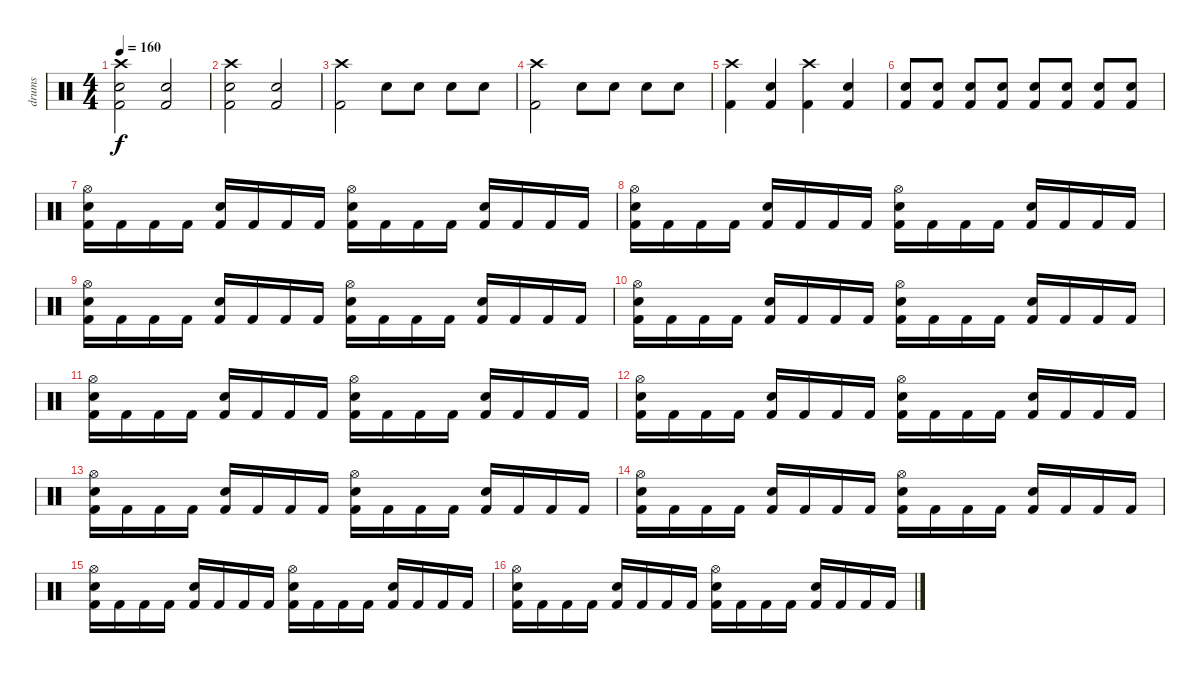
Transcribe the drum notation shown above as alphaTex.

\track ("drums" "drums") {instrument percussion}
\staff {score}
\articulation defaults
\ts (4 4)
\tempo 160
\clef neutral
\ks c
("Crash high (hit)" "Electric Snare (hit)" "Kick (hit) 2").2{dy f} ("Snare (hit) 2" "Kick (hit) 2").2 |
("Crash high (hit)" "Electric Snare (hit)" "Kick (hit) 2").2 ("Snare (hit) 2" "Kick (hit) 2").2 |
("Crash high (hit)" "Kick (hit) 2").2 "Electric Snare (hit)".8 "Electric Snare (hit)".8 "Snare (hit) 2".8 "Snare (hit) 2".8 |
("Crash high (hit)" "Kick (hit) 2").2 "Electric Snare (hit)".8 "Electric Snare (hit)".8 "Snare (hit) 2".8 "Snare (hit) 2".8 |
("Crash high (hit)" "Kick (hit) 2").4 ("Snare (hit) 2" "Kick (hit) 2").4 ("Crash high (hit)" "Kick (hit) 2").4 ("Snare (hit) 2" "Kick (hit) 2").4 |
("Snare (hit) 2" "Kick (hit) 2").8 ("Snare (hit) 2" "Kick (hit) 2").8 ("Snare (hit) 2" "Kick (hit) 2").8 ("Snare (hit) 2" "Kick (hit) 2").8 ("Snare (hit) 2" "Kick (hit) 2").8 ("Snare (hit) 2" "Kick (hit) 2").8 ("Snare (hit) 2" "Kick (hit) 2").8 ("Snare (hit) 2" "Kick (hit) 2").8 |
("Hi-Hat (open)" "Electric Snare (hit)" "Kick (hit) 2").16 "Kick (hit) 2".16 "Kick (hit) 2".16 "Kick (hit) 2".16 ("Electric Snare (hit)" "Kick (hit) 2").16 "Kick (hit) 2".16 "Kick (hit) 2".16 "Kick (hit) 2".16 ("Hi-Hat (open)" "Electric Snare (hit)" "Kick (hit) 2").16 "Kick (hit) 2".16 "Kick (hit) 2".16 "Kick (hit) 2".16 ("Electric Snare (hit)" "Kick (hit) 2").16 "Kick (hit) 2".16 "Kick (hit) 2".16 "Kick (hit) 2".16 |
("Hi-Hat (open)" "Electric Snare (hit)" "Kick (hit) 2").16 "Kick (hit) 2".16 "Kick (hit) 2".16 "Kick (hit) 2".16 ("Electric Snare (hit)" "Kick (hit) 2").16 "Kick (hit) 2".16 "Kick (hit) 2".16 "Kick (hit) 2".16 ("Hi-Hat (open)" "Electric Snare (hit)" "Kick (hit) 2").16 "Kick (hit) 2".16 "Kick (hit) 2".16 "Kick (hit) 2".16 ("Electric Snare (hit)" "Kick (hit) 2").16 "Kick (hit) 2".16 "Kick (hit) 2".16 "Kick (hit) 2".16 |
("Hi-Hat (open)" "Electric Snare (hit)" "Kick (hit) 2").16 "Kick (hit) 2".16 "Kick (hit) 2".16 "Kick (hit) 2".16 ("Electric Snare (hit)" "Kick (hit) 2").16 "Kick (hit) 2".16 "Kick (hit) 2".16 "Kick (hit) 2".16 ("Hi-Hat (open)" "Electric Snare (hit)" "Kick (hit) 2").16 "Kick (hit) 2".16 "Kick (hit) 2".16 "Kick (hit) 2".16 ("Electric Snare (hit)" "Kick (hit) 2").16 "Kick (hit) 2".16 "Kick (hit) 2".16 "Kick (hit) 2".16 |
("Hi-Hat (open)" "Electric Snare (hit)" "Kick (hit) 2").16 "Kick (hit) 2".16 "Kick (hit) 2".16 "Kick (hit) 2".16 ("Electric Snare (hit)" "Kick (hit) 2").16 "Kick (hit) 2".16 "Kick (hit) 2".16 "Kick (hit) 2".16 ("Hi-Hat (open)" "Electric Snare (hit)" "Kick (hit) 2").16 "Kick (hit) 2".16 "Kick (hit) 2".16 "Kick (hit) 2".16 ("Electric Snare (hit)" "Kick (hit) 2").16 "Kick (hit) 2".16 "Kick (hit) 2".16 "Kick (hit) 2".16 |
("Hi-Hat (open)" "Electric Snare (hit)" "Kick (hit) 2").16 "Kick (hit) 2".16 "Kick (hit) 2".16 "Kick (hit) 2".16 ("Electric Snare (hit)" "Kick (hit) 2").16 "Kick (hit) 2".16 "Kick (hit) 2".16 "Kick (hit) 2".16 ("Hi-Hat (open)" "Electric Snare (hit)" "Kick (hit) 2").16 "Kick (hit) 2".16 "Kick (hit) 2".16 "Kick (hit) 2".16 ("Electric Snare (hit)" "Kick (hit) 2").16 "Kick (hit) 2".16 "Kick (hit) 2".16 "Kick (hit) 2".16 |
("Hi-Hat (open)" "Electric Snare (hit)" "Kick (hit) 2").16 "Kick (hit) 2".16 "Kick (hit) 2".16 "Kick (hit) 2".16 ("Electric Snare (hit)" "Kick (hit) 2").16 "Kick (hit) 2".16 "Kick (hit) 2".16 "Kick (hit) 2".16 ("Hi-Hat (open)" "Electric Snare (hit)" "Kick (hit) 2").16 "Kick (hit) 2".16 "Kick (hit) 2".16 "Kick (hit) 2".16 ("Electric Snare (hit)" "Kick (hit) 2").16 "Kick (hit) 2".16 "Kick (hit) 2".16 "Kick (hit) 2".16 |
("Hi-Hat (open)" "Electric Snare (hit)" "Kick (hit) 2").16 "Kick (hit) 2".16 "Kick (hit) 2".16 "Kick (hit) 2".16 ("Electric Snare (hit)" "Kick (hit) 2").16 "Kick (hit) 2".16 "Kick (hit) 2".16 "Kick (hit) 2".16 ("Hi-Hat (open)" "Electric Snare (hit)" "Kick (hit) 2").16 "Kick (hit) 2".16 "Kick (hit) 2".16 "Kick (hit) 2".16 ("Electric Snare (hit)" "Kick (hit) 2").16 "Kick (hit) 2".16 "Kick (hit) 2".16 "Kick (hit) 2".16 |
("Hi-Hat (open)" "Electric Snare (hit)" "Kick (hit) 2").16 "Kick (hit) 2".16 "Kick (hit) 2".16 "Kick (hit) 2".16 ("Electric Snare (hit)" "Kick (hit) 2").16 "Kick (hit) 2".16 "Kick (hit) 2".16 "Kick (hit) 2".16 ("Hi-Hat (open)" "Electric Snare (hit)" "Kick (hit) 2").16 "Kick (hit) 2".16 "Kick (hit) 2".16 "Kick (hit) 2".16 ("Electric Snare (hit)" "Kick (hit) 2").16 "Kick (hit) 2".16 "Kick (hit) 2".16 "Kick (hit) 2".16 |
("Hi-Hat (open)" "Electric Snare (hit)" "Kick (hit) 2").16 "Kick (hit) 2".16 "Kick (hit) 2".16 "Kick (hit) 2".16 ("Electric Snare (hit)" "Kick (hit) 2").16 "Kick (hit) 2".16 "Kick (hit) 2".16 "Kick (hit) 2".16 ("Hi-Hat (open)" "Electric Snare (hit)" "Kick (hit) 2").16 "Kick (hit) 2".16 "Kick (hit) 2".16 "Kick (hit) 2".16 ("Electric Snare (hit)" "Kick (hit) 2").16 "Kick (hit) 2".16 "Kick (hit) 2".16 "Kick (hit) 2".16 |
("Hi-Hat (open)" "Electric Snare (hit)" "Kick (hit) 2").16 "Kick (hit) 2".16 "Kick (hit) 2".16 "Kick (hit) 2".16 ("Electric Snare (hit)" "Kick (hit) 2").16 "Kick (hit) 2".16 "Kick (hit) 2".16 "Kick (hit) 2".16 ("Hi-Hat (open)" "Electric Snare (hit)" "Kick (hit) 2").16 "Kick (hit) 2".16 "Kick (hit) 2".16 "Kick (hit) 2".16 ("Electric Snare (hit)" "Kick (hit) 2").16 "Kick (hit) 2".16 "Kick (hit) 2".16 "Kick (hit) 2".16
